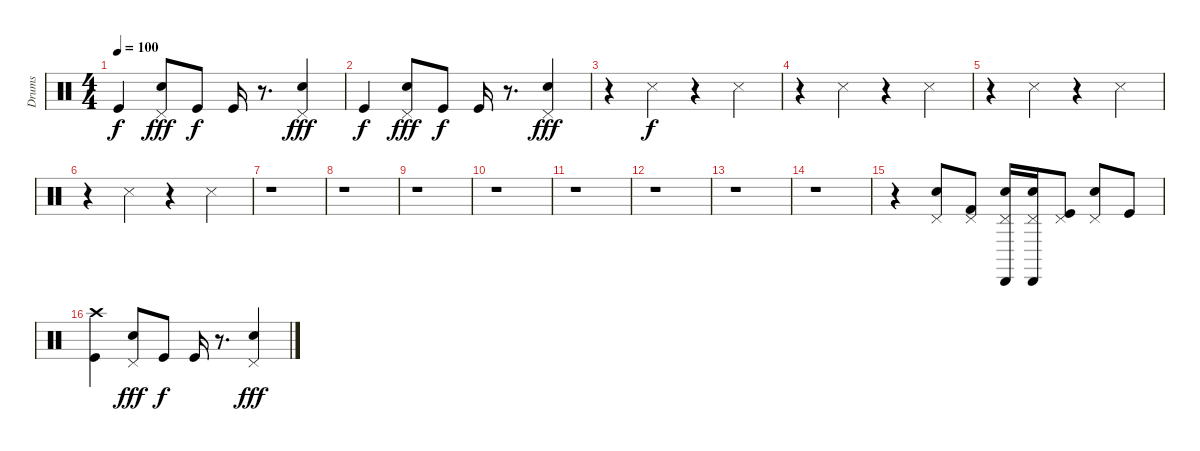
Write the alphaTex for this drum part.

\track ("Drums" "Drums") {instrument percussion}
\staff {score}
\articulation defaults
\ts (4 4)
\tempo 100
\clef neutral
\ks c "Kick (hit)".4{dy f}
("Pedal Hi-Hat (hit)" "Electric Snare (hit)").8{dy fff} "Kick (hit)".8{dy f} "Kick (hit)".16 r.8{d} ("Pedal Hi-Hat (hit)" "Electric Snare (hit)").4{dy fff} |
"Kick (hit)".4{dy f} ("Pedal Hi-Hat (hit)" "Electric Snare (hit)").8{dy fff} "Kick (hit)".8{dy f} "Kick (hit)".16 r.8{d} ("Pedal Hi-Hat (hit)" "Electric Snare (hit)").4{dy fff} |
r.4 "Snare (side stick) 3".4{dy f} r.4 "Snare (side stick) 3".4 |
r.4 "Snare (side stick) 3".4 r.4 "Snare (side stick) 3".4 |
r.4 "Snare (side stick) 3".4 r.4 "Snare (side stick) 3".4 |
r.4 "Snare (side stick) 3".4 r.4 "Snare (side stick) 3".4 |
r.1 |
r.1 |
r.1 |
r.1 |
r.1 |
r.1 |
r.1 |
r.1 |
r.4 ("Pedal Hi-Hat (hit)" "Electric Snare (hit)").8 ("Pedal Hi-Hat (hit)" "Kick (hit) 2").8 ("Pedal Hi-Hat (hit)" "Snare (hit) 2" "Cabasa (hit)").16 ("Pedal Hi-Hat (hit)" "Snare (hit) 2" "Cabasa (hit)").16 ("Pedal Hi-Hat (hit)" "Kick (hit)").8 ("Pedal Hi-Hat (hit)" "Electric Snare (hit)").8 "Kick (hit)".8 |
("Crash high (hit)" "Kick (hit)").4 ("Pedal Hi-Hat (hit)" "Electric Snare (hit)").8{dy fff} "Kick (hit)".8{dy f} "Kick (hit)".16 r.8{d} ("Pedal Hi-Hat (hit)" "Electric Snare (hit)").4{dy fff}
